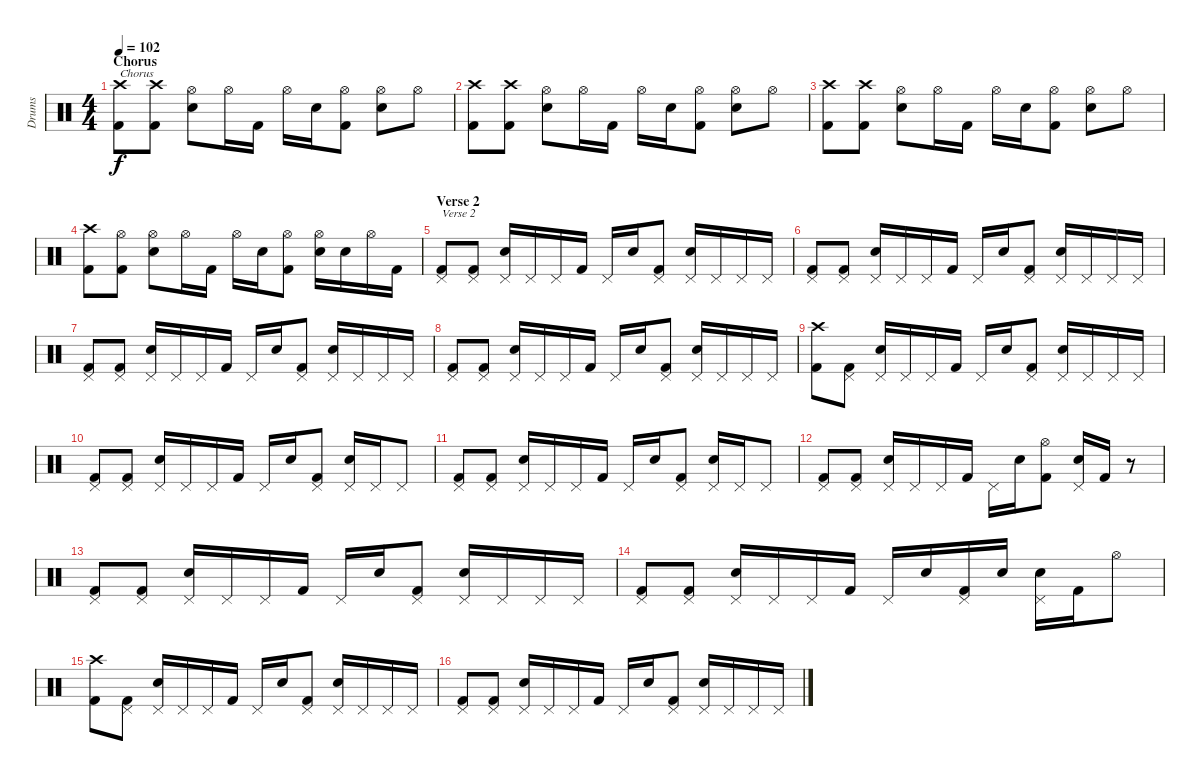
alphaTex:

\track ("Drums" "Drums") {instrument percussion}
\staff {score}
\articulation defaults
\ts (4 4)
\section ("" "Chorus")
\tempo 102
\clef neutral
\ks c
("Crash high (hit)" "Kick (hit) 2").8{txt "Chorus" dy f} ("Crash high (hit)" "Kick (hit) 2").8 ("Hi-Hat (open)" "Electric Snare (hit)").8 "Hi-Hat (open)".16 "Kick (hit) 2".16 "Hi-Hat (open)".16 "Electric Snare (hit)".16 ("Hi-Hat (open)" "Kick (hit) 2").8 ("Hi-Hat (open)" "Electric Snare (hit)").8 "Hi-Hat (open)".8 |
("Crash high (hit)" "Kick (hit) 2").8 ("Crash high (hit)" "Kick (hit) 2").8 ("Hi-Hat (open)" "Electric Snare (hit)").8 "Hi-Hat (open)".16 "Kick (hit) 2".16 "Hi-Hat (open)".16 "Electric Snare (hit)".16 ("Hi-Hat (open)" "Kick (hit) 2").8 ("Hi-Hat (open)" "Electric Snare (hit)").8 "Hi-Hat (open)".8 |
("Crash high (hit)" "Kick (hit) 2").8 ("Crash high (hit)" "Kick (hit) 2").8 ("Hi-Hat (open)" "Electric Snare (hit)").8 "Hi-Hat (open)".16 "Kick (hit) 2".16 "Hi-Hat (open)".16 "Electric Snare (hit)".16 ("Hi-Hat (open)" "Kick (hit) 2").8 ("Hi-Hat (open)" "Electric Snare (hit)").8 "Hi-Hat (open)".8 |
("Crash high (hit)" "Kick (hit) 2").8 ("Hi-Hat (open)" "Kick (hit) 2").8 ("Hi-Hat (open)" "Electric Snare (hit)").8 "Hi-Hat (open)".16 "Kick (hit) 2".16 "Hi-Hat (open)".16 "Electric Snare (hit)".16 ("Hi-Hat (open)" "Kick (hit) 2").8 ("Hi-Hat (open)" "Electric Snare (hit)").16 "Electric Snare (hit)".16 "Hi-Hat (open)".16 "Kick (hit) 2".16 |
\section ("" "Verse 2")
("Pedal Hi-Hat (hit)" "Kick (hit) 2").8{txt "Verse 2"} ("Pedal Hi-Hat (hit)" "Kick (hit) 2").8 ("Pedal Hi-Hat (hit)" "Electric Snare (hit)").16 "Pedal Hi-Hat (hit)".16 "Pedal Hi-Hat (hit)".16 "Kick (hit) 2".16 "Pedal Hi-Hat (hit)".16 "Electric Snare (hit)".16 ("Pedal Hi-Hat (hit)" "Kick (hit) 2").8 ("Pedal Hi-Hat (hit)" "Electric Snare (hit)").16 "Pedal Hi-Hat (hit)".16 "Pedal Hi-Hat (hit)".16 "Pedal Hi-Hat (hit)".16 |
("Pedal Hi-Hat (hit)" "Kick (hit) 2").8 ("Pedal Hi-Hat (hit)" "Kick (hit) 2").8 ("Pedal Hi-Hat (hit)" "Electric Snare (hit)").16 "Pedal Hi-Hat (hit)".16 "Pedal Hi-Hat (hit)".16 "Kick (hit) 2".16 "Pedal Hi-Hat (hit)".16 "Electric Snare (hit)".16 ("Pedal Hi-Hat (hit)" "Kick (hit) 2").8 ("Pedal Hi-Hat (hit)" "Electric Snare (hit)").16 "Pedal Hi-Hat (hit)".16 "Pedal Hi-Hat (hit)".16 "Pedal Hi-Hat (hit)".16 |
("Pedal Hi-Hat (hit)" "Kick (hit) 2").8 ("Pedal Hi-Hat (hit)" "Kick (hit) 2").8 ("Pedal Hi-Hat (hit)" "Electric Snare (hit)").16 "Pedal Hi-Hat (hit)".16 "Pedal Hi-Hat (hit)".16 "Kick (hit) 2".16 "Pedal Hi-Hat (hit)".16 "Electric Snare (hit)".16 ("Pedal Hi-Hat (hit)" "Kick (hit) 2").8 ("Pedal Hi-Hat (hit)" "Electric Snare (hit)").16 "Pedal Hi-Hat (hit)".16 "Pedal Hi-Hat (hit)".16 "Pedal Hi-Hat (hit)".16 |
("Pedal Hi-Hat (hit)" "Kick (hit) 2").8 ("Pedal Hi-Hat (hit)" "Kick (hit) 2").8 ("Pedal Hi-Hat (hit)" "Electric Snare (hit)").16 "Pedal Hi-Hat (hit)".16 "Pedal Hi-Hat (hit)".16 "Kick (hit) 2".16 "Pedal Hi-Hat (hit)".16 "Electric Snare (hit)".16 ("Pedal Hi-Hat (hit)" "Kick (hit) 2").8 ("Pedal Hi-Hat (hit)" "Electric Snare (hit)").16 "Pedal Hi-Hat (hit)".16 "Pedal Hi-Hat (hit)".16 "Pedal Hi-Hat (hit)".16 |
("Crash high (hit)" "Kick (hit) 2").8 ("Pedal Hi-Hat (hit)" "Kick (hit) 2").8 ("Pedal Hi-Hat (hit)" "Electric Snare (hit)").16 "Pedal Hi-Hat (hit)".16 "Pedal Hi-Hat (hit)".16 "Kick (hit) 2".16 "Pedal Hi-Hat (hit)".16 "Electric Snare (hit)".16 ("Pedal Hi-Hat (hit)" "Kick (hit) 2").8 ("Pedal Hi-Hat (hit)" "Electric Snare (hit)").16 "Pedal Hi-Hat (hit)".16 "Pedal Hi-Hat (hit)".16 "Pedal Hi-Hat (hit)".16 |
("Pedal Hi-Hat (hit)" "Kick (hit) 2").8 ("Pedal Hi-Hat (hit)" "Kick (hit) 2").8 ("Pedal Hi-Hat (hit)" "Electric Snare (hit)").16 "Pedal Hi-Hat (hit)".16 "Pedal Hi-Hat (hit)".16 "Kick (hit) 2".16 "Pedal Hi-Hat (hit)".16 "Electric Snare (hit)".16 ("Pedal Hi-Hat (hit)" "Kick (hit) 2").8 ("Pedal Hi-Hat (hit)" "Electric Snare (hit)").16 "Pedal Hi-Hat (hit)".16 "Pedal Hi-Hat (hit)".8 |
("Pedal Hi-Hat (hit)" "Kick (hit) 2").8 ("Pedal Hi-Hat (hit)" "Kick (hit) 2").8 ("Pedal Hi-Hat (hit)" "Electric Snare (hit)").16 "Pedal Hi-Hat (hit)".16 "Pedal Hi-Hat (hit)".16 "Kick (hit) 2".16 "Pedal Hi-Hat (hit)".16 "Electric Snare (hit)".16 ("Pedal Hi-Hat (hit)" "Kick (hit) 2").8 ("Pedal Hi-Hat (hit)" "Electric Snare (hit)").16 "Pedal Hi-Hat (hit)".16 "Pedal Hi-Hat (hit)".8 |
("Pedal Hi-Hat (hit)" "Kick (hit) 2").8 ("Pedal Hi-Hat (hit)" "Kick (hit) 2").8 ("Pedal Hi-Hat (hit)" "Electric Snare (hit)").16 "Pedal Hi-Hat (hit)".16 "Pedal Hi-Hat (hit)".16 "Kick (hit) 2".16 "Pedal Hi-Hat (hit)".16 "Electric Snare (hit)".16 ("Hi-Hat (open)" "Kick (hit) 2").8 ("Pedal Hi-Hat (hit)" "Electric Snare (hit)").16 "Kick (hit) 2".16 r.8 |
("Pedal Hi-Hat (hit)" "Kick (hit) 2").8 ("Pedal Hi-Hat (hit)" "Kick (hit) 2").8 ("Pedal Hi-Hat (hit)" "Electric Snare (hit)").16 "Pedal Hi-Hat (hit)".16 "Pedal Hi-Hat (hit)".16 "Kick (hit) 2".16 "Pedal Hi-Hat (hit)".16 "Electric Snare (hit)".16 ("Pedal Hi-Hat (hit)" "Kick (hit) 2").8 ("Pedal Hi-Hat (hit)" "Electric Snare (hit)").16 "Pedal Hi-Hat (hit)".16 "Pedal Hi-Hat (hit)".16 "Pedal Hi-Hat (hit)".16 |
("Pedal Hi-Hat (hit)" "Kick (hit) 2").8 ("Pedal Hi-Hat (hit)" "Kick (hit) 2").8 ("Pedal Hi-Hat (hit)" "Electric Snare (hit)").16 "Pedal Hi-Hat (hit)".16 "Pedal Hi-Hat (hit)".16 "Kick (hit) 2".16 "Pedal Hi-Hat (hit)".16 "Electric Snare (hit)".16 ("Pedal Hi-Hat (hit)" "Kick (hit) 2").16 "Electric Snare (hit)".16 ("Pedal Hi-Hat (hit)" "Electric Snare (hit)").16 "Kick (hit) 2".16 "Hi-Hat (open)".8 |
("Crash high (hit)" "Kick (hit) 2").8 ("Pedal Hi-Hat (hit)" "Kick (hit) 2").8 ("Pedal Hi-Hat (hit)" "Electric Snare (hit)").16 "Pedal Hi-Hat (hit)".16 "Pedal Hi-Hat (hit)".16 "Kick (hit) 2".16 "Pedal Hi-Hat (hit)".16 "Electric Snare (hit)".16 ("Pedal Hi-Hat (hit)" "Kick (hit) 2").8 ("Pedal Hi-Hat (hit)" "Electric Snare (hit)").16 "Pedal Hi-Hat (hit)".16 "Pedal Hi-Hat (hit)".16 "Pedal Hi-Hat (hit)".16 |
("Pedal Hi-Hat (hit)" "Kick (hit) 2").8 ("Pedal Hi-Hat (hit)" "Kick (hit) 2").8 ("Pedal Hi-Hat (hit)" "Electric Snare (hit)").16 "Pedal Hi-Hat (hit)".16 "Pedal Hi-Hat (hit)".16 "Kick (hit) 2".16 "Pedal Hi-Hat (hit)".16 "Electric Snare (hit)".16 ("Pedal Hi-Hat (hit)" "Kick (hit) 2").8 ("Pedal Hi-Hat (hit)" "Electric Snare (hit)").16 "Pedal Hi-Hat (hit)".16 "Pedal Hi-Hat (hit)".16 "Pedal Hi-Hat (hit)".16
